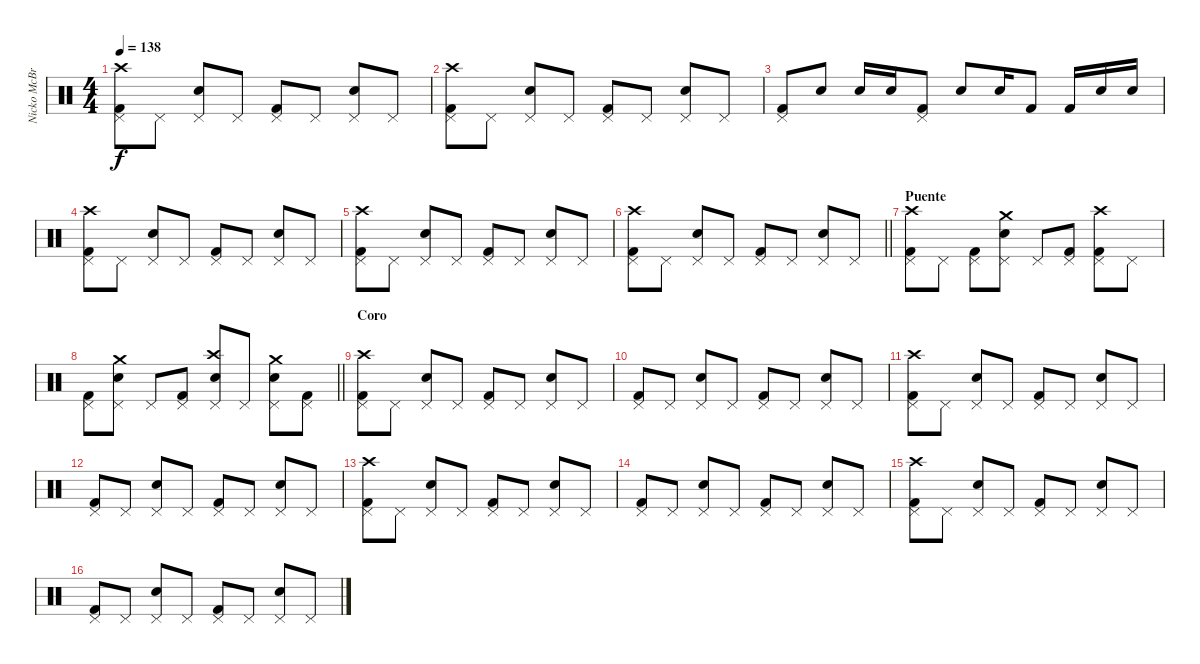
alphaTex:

\track ("Nicko McBrain" "Nicko McBr") {instrument percussion}
\staff {score}
\articulation defaults
\ts (4 4)
\tempo 138
\clef neutral
\ks c
("Kick (hit) 2" "Pedal Hi-Hat (hit)" "Crash high (hit)").8{dy f} "Pedal Hi-Hat (hit)".8 ("Snare (hit) 2" "Pedal Hi-Hat (hit)").8 "Pedal Hi-Hat (hit)".8 ("Kick (hit) 2" "Pedal Hi-Hat (hit)").8 "Pedal Hi-Hat (hit)".8 ("Snare (hit) 2" "Pedal Hi-Hat (hit)").8 "Pedal Hi-Hat (hit)".8 |
("Kick (hit) 2" "Pedal Hi-Hat (hit)" "Crash high (hit)").8 "Pedal Hi-Hat (hit)".8 ("Snare (hit) 2" "Pedal Hi-Hat (hit)").8 "Pedal Hi-Hat (hit)".8 ("Kick (hit) 2" "Pedal Hi-Hat (hit)").8 "Pedal Hi-Hat (hit)".8 ("Snare (hit) 2" "Pedal Hi-Hat (hit)").8 "Pedal Hi-Hat (hit)".8 |
("Kick (hit) 2" "Pedal Hi-Hat (hit)").8 "Snare (hit) 2".8 "Snare (hit) 2".16 "Snare (hit) 2".16 ("Kick (hit) 2" "Pedal Hi-Hat (hit)").8 "Snare (hit) 2".8 "Snare (hit) 2".16 "Kick (hit) 2".8 "Kick (hit) 2".16 "Snare (hit) 2".16 "Snare (hit) 2".16 |
("Kick (hit) 2" "Pedal Hi-Hat (hit)" "Crash high (hit)").8 "Pedal Hi-Hat (hit)".8 ("Snare (hit) 2" "Pedal Hi-Hat (hit)").8 "Pedal Hi-Hat (hit)".8 ("Kick (hit) 2" "Pedal Hi-Hat (hit)").8 "Pedal Hi-Hat (hit)".8 ("Snare (hit) 2" "Pedal Hi-Hat (hit)").8 "Pedal Hi-Hat (hit)".8 |
("Kick (hit) 2" "Pedal Hi-Hat (hit)" "Crash high (hit)").8 "Pedal Hi-Hat (hit)".8 ("Snare (hit) 2" "Pedal Hi-Hat (hit)").8 "Pedal Hi-Hat (hit)".8 ("Kick (hit) 2" "Pedal Hi-Hat (hit)").8 "Pedal Hi-Hat (hit)".8 ("Snare (hit) 2" "Pedal Hi-Hat (hit)").8 "Pedal Hi-Hat (hit)".8 |
\barLineRight lightlight
("Kick (hit) 2" "Pedal Hi-Hat (hit)" "Crash high (hit)").8 "Pedal Hi-Hat (hit)".8 ("Snare (hit) 2" "Pedal Hi-Hat (hit)").8 "Pedal Hi-Hat (hit)".8 ("Kick (hit) 2" "Pedal Hi-Hat (hit)").8 "Pedal Hi-Hat (hit)".8 ("Snare (hit) 2" "Pedal Hi-Hat (hit)").8 "Pedal Hi-Hat (hit)".8 |
\section ("" "Puente")
("Kick (hit) 2" "Pedal Hi-Hat (hit)" "Crash high (hit)").8 "Pedal Hi-Hat (hit)".8 ("Kick (hit) 2" "Pedal Hi-Hat (hit)").8 ("Snare (hit) 2" "Pedal Hi-Hat (hit)" "Crash medium (hit)").8 "Pedal Hi-Hat (hit)".8 ("Kick (hit) 2" "Pedal Hi-Hat (hit)").8 ("Kick (hit) 2" "Pedal Hi-Hat (hit)" "Crash high (hit)").8 "Pedal Hi-Hat (hit)".8 |
\barLineRight lightlight
("Kick (hit) 2" "Pedal Hi-Hat (hit)").8 ("Snare (hit) 2" "Pedal Hi-Hat (hit)" "Crash medium (hit)").8 "Pedal Hi-Hat (hit)".8 ("Kick (hit) 2" "Pedal Hi-Hat (hit)").8 ("Snare (hit) 2" "Pedal Hi-Hat (hit)" "Crash high (hit)").8 "Pedal Hi-Hat (hit)".8 ("Snare (hit) 2" "Pedal Hi-Hat (hit)" "Crash medium (hit)").8 ("Kick (hit) 2" "Pedal Hi-Hat (hit)").8 |
\section ("" "Coro")
("Kick (hit) 2" "Pedal Hi-Hat (hit)" "Crash high (hit)").8 "Pedal Hi-Hat (hit)".8 ("Snare (hit) 2" "Pedal Hi-Hat (hit)").8 "Pedal Hi-Hat (hit)".8 ("Kick (hit) 2" "Pedal Hi-Hat (hit)").8 "Pedal Hi-Hat (hit)".8 ("Snare (hit) 2" "Pedal Hi-Hat (hit)").8 "Pedal Hi-Hat (hit)".8 |
("Kick (hit) 2" "Pedal Hi-Hat (hit)").8 "Pedal Hi-Hat (hit)".8 ("Snare (hit) 2" "Pedal Hi-Hat (hit)").8 "Pedal Hi-Hat (hit)".8 ("Kick (hit) 2" "Pedal Hi-Hat (hit)").8 "Pedal Hi-Hat (hit)".8 ("Snare (hit) 2" "Pedal Hi-Hat (hit)").8 "Pedal Hi-Hat (hit)".8 |
("Kick (hit) 2" "Pedal Hi-Hat (hit)" "Crash high (hit)").8 "Pedal Hi-Hat (hit)".8 ("Snare (hit) 2" "Pedal Hi-Hat (hit)").8 "Pedal Hi-Hat (hit)".8 ("Kick (hit) 2" "Pedal Hi-Hat (hit)").8 "Pedal Hi-Hat (hit)".8 ("Snare (hit) 2" "Pedal Hi-Hat (hit)").8 "Pedal Hi-Hat (hit)".8 |
("Kick (hit) 2" "Pedal Hi-Hat (hit)").8 "Pedal Hi-Hat (hit)".8 ("Snare (hit) 2" "Pedal Hi-Hat (hit)").8 "Pedal Hi-Hat (hit)".8 ("Kick (hit) 2" "Pedal Hi-Hat (hit)").8 "Pedal Hi-Hat (hit)".8 ("Snare (hit) 2" "Pedal Hi-Hat (hit)").8 "Pedal Hi-Hat (hit)".8 |
("Kick (hit) 2" "Pedal Hi-Hat (hit)" "Crash high (hit)").8 "Pedal Hi-Hat (hit)".8 ("Snare (hit) 2" "Pedal Hi-Hat (hit)").8 "Pedal Hi-Hat (hit)".8 ("Kick (hit) 2" "Pedal Hi-Hat (hit)").8 "Pedal Hi-Hat (hit)".8 ("Snare (hit) 2" "Pedal Hi-Hat (hit)").8 "Pedal Hi-Hat (hit)".8 |
("Kick (hit) 2" "Pedal Hi-Hat (hit)").8 "Pedal Hi-Hat (hit)".8 ("Snare (hit) 2" "Pedal Hi-Hat (hit)").8 "Pedal Hi-Hat (hit)".8 ("Kick (hit) 2" "Pedal Hi-Hat (hit)").8 "Pedal Hi-Hat (hit)".8 ("Snare (hit) 2" "Pedal Hi-Hat (hit)").8 "Pedal Hi-Hat (hit)".8 |
("Kick (hit) 2" "Pedal Hi-Hat (hit)" "Crash high (hit)").8 "Pedal Hi-Hat (hit)".8 ("Snare (hit) 2" "Pedal Hi-Hat (hit)").8 "Pedal Hi-Hat (hit)".8 ("Kick (hit) 2" "Pedal Hi-Hat (hit)").8 "Pedal Hi-Hat (hit)".8 ("Snare (hit) 2" "Pedal Hi-Hat (hit)").8 "Pedal Hi-Hat (hit)".8 |
("Kick (hit) 2" "Pedal Hi-Hat (hit)").8 "Pedal Hi-Hat (hit)".8 ("Snare (hit) 2" "Pedal Hi-Hat (hit)").8 "Pedal Hi-Hat (hit)".8 ("Kick (hit) 2" "Pedal Hi-Hat (hit)").8 "Pedal Hi-Hat (hit)".8 ("Snare (hit) 2" "Pedal Hi-Hat (hit)").8 "Pedal Hi-Hat (hit)".8
